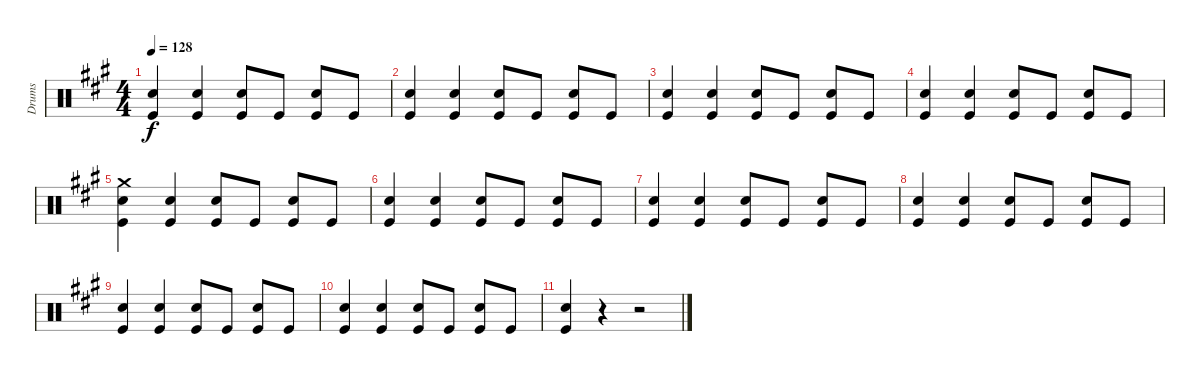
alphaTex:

\defaultSystemsLayout 4
\bracketExtendMode groupsimilarinstruments
\otherSystemsTrackNameOrientation horizontal
\track ("Drumkit" "Drums") {instrument percussion}
\staff {score}
\articulation defaults
\ts (4 4)
\tempo 128
\clef neutral
\ks a
("Snare (hit) 2" "Kick (hit)").4{dy f} ("Snare (hit) 2" "Kick (hit)").4 ("Snare (hit) 2" "Kick (hit)").8 "Kick (hit)".8 ("Snare (hit) 2" "Kick (hit)").8 "Kick (hit)".8 |
("Snare (hit) 2" "Kick (hit)").4 ("Snare (hit) 2" "Kick (hit)").4 ("Snare (hit) 2" "Kick (hit)").8 "Kick (hit)".8 ("Snare (hit) 2" "Kick (hit)").8 "Kick (hit)".8 |
("Snare (hit) 2" "Kick (hit)").4 ("Snare (hit) 2" "Kick (hit)").4 ("Snare (hit) 2" "Kick (hit)").8 "Kick (hit)".8 ("Snare (hit) 2" "Kick (hit)").8 "Kick (hit)".8 |
("Snare (hit) 2" "Kick (hit)").4 ("Snare (hit) 2" "Kick (hit)").4 ("Snare (hit) 2" "Kick (hit)").8 "Kick (hit)".8 ("Snare (hit) 2" "Kick (hit)").8 "Kick (hit)".8 |
("Crash medium (hit)" "Snare (hit) 2" "Kick (hit)").4 ("Snare (hit) 2" "Kick (hit)").4 ("Snare (hit) 2" "Kick (hit)").8 "Kick (hit)".8 ("Snare (hit) 2" "Kick (hit)").8 "Kick (hit)".8 |
("Snare (hit) 2" "Kick (hit)").4 ("Snare (hit) 2" "Kick (hit)").4 ("Snare (hit) 2" "Kick (hit)").8 "Kick (hit)".8 ("Snare (hit) 2" "Kick (hit)").8 "Kick (hit)".8 |
("Snare (hit) 2" "Kick (hit)").4 ("Snare (hit) 2" "Kick (hit)").4 ("Snare (hit) 2" "Kick (hit)").8 "Kick (hit)".8 ("Snare (hit) 2" "Kick (hit)").8 "Kick (hit)".8 |
("Snare (hit) 2" "Kick (hit)").4 ("Snare (hit) 2" "Kick (hit)").4 ("Snare (hit) 2" "Kick (hit)").8 "Kick (hit)".8 ("Snare (hit) 2" "Kick (hit)").8 "Kick (hit)".8 |
("Snare (hit) 2" "Kick (hit)").4 ("Snare (hit) 2" "Kick (hit)").4 ("Snare (hit) 2" "Kick (hit)").8 "Kick (hit)".8 ("Snare (hit) 2" "Kick (hit)").8 "Kick (hit)".8 |
("Snare (hit) 2" "Kick (hit)").4 ("Snare (hit) 2" "Kick (hit)").4 ("Snare (hit) 2" "Kick (hit)").8 "Kick (hit)".8 ("Snare (hit) 2" "Kick (hit)").8 "Kick (hit)".8 |
("Snare (hit) 2" "Kick (hit)").4 r.4 r.2
